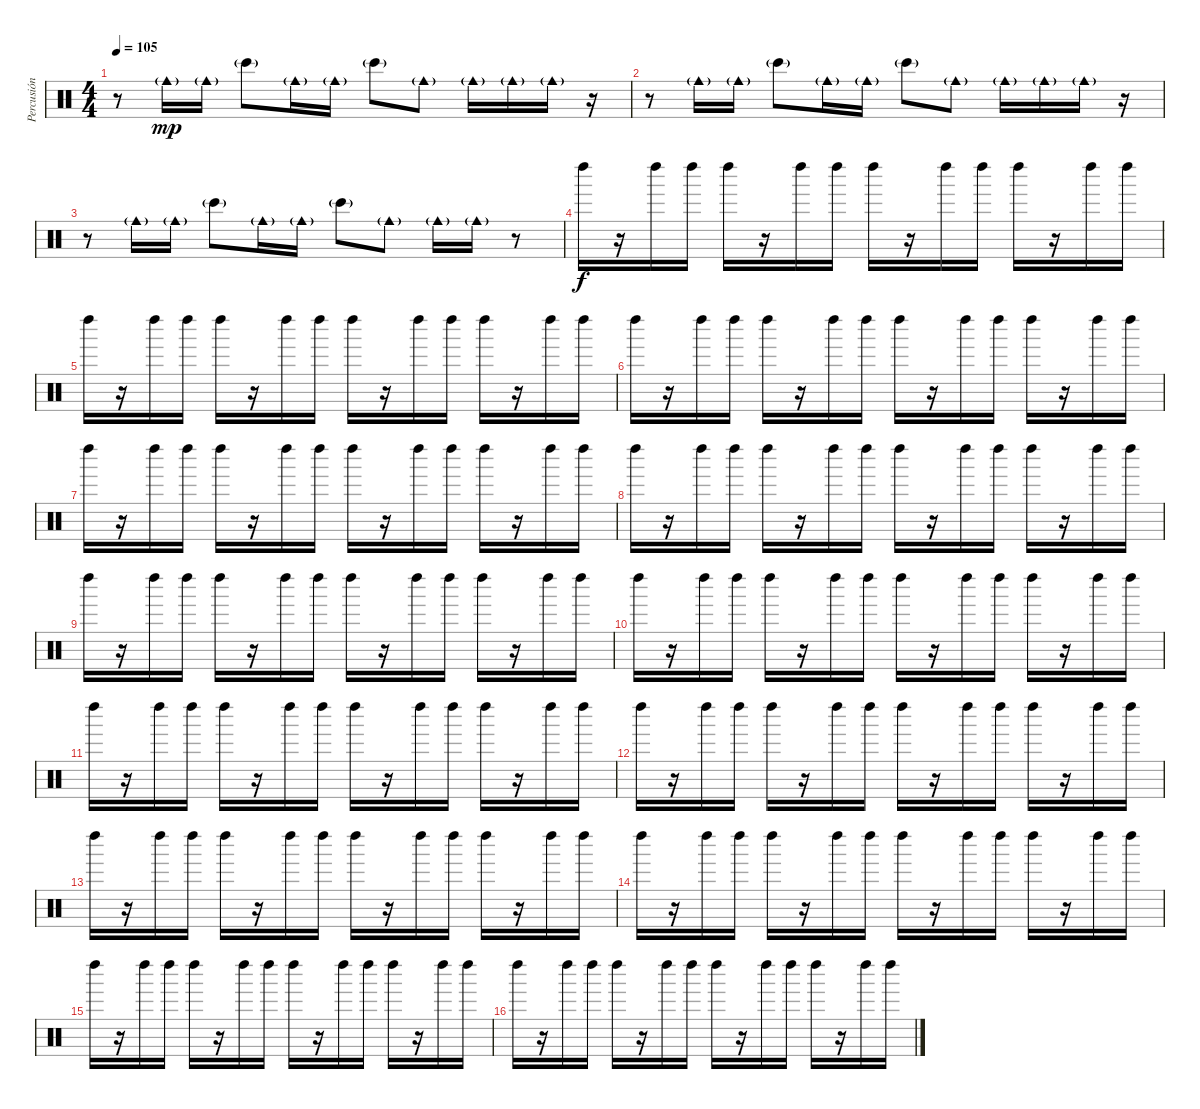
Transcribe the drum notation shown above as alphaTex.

\track ("Percusión" "Percusión") {instrument percussion}
\staff {score}
\articulation defaults
\ts (4 4)
\tempo 105
\clef neutral
\ks c
r.8{dy mp} "Cowbell medium (hit)"{g}.16 "Cowbell medium (hit)"{g}.16 "Bongo High (hit)"{g}.8 "Cowbell medium (hit)"{g}.16 "Cowbell medium (hit)"{g}.16 "Bongo High (hit)"{g}.8 "Cowbell medium (hit)"{g}.8 "Cowbell medium (hit)"{g}.16 "Cowbell medium (hit)"{g}.16 "Cowbell medium (hit)"{g}.16 r.16 |
r.8 "Cowbell medium (hit)"{g}.16 "Cowbell medium (hit)"{g}.16 "Bongo High (hit)"{g}.8 "Cowbell medium (hit)"{g}.16 "Cowbell medium (hit)"{g}.16 "Bongo High (hit)"{g}.8 "Cowbell medium (hit)"{g}.8 "Cowbell medium (hit)"{g}.16 "Cowbell medium (hit)"{g}.16 "Cowbell medium (hit)"{g}.16 r.16 |
r.8 "Cowbell medium (hit)"{g}.16 "Cowbell medium (hit)"{g}.16 "Bongo High (hit)"{g}.8 "Cowbell medium (hit)"{g}.16 "Cowbell medium (hit)"{g}.16 "Bongo High (hit)"{g}.8 "Cowbell medium (hit)"{g}.8 "Cowbell medium (hit)"{g}.16 "Cowbell medium (hit)"{g}.16 r.8 |
"Left Maraca (hit)".16{dy f} r.16 "Left Maraca (hit)".16 "Left Maraca (hit)".16 "Left Maraca (hit)".16 r.16 "Left Maraca (hit)".16 "Left Maraca (hit)".16 "Left Maraca (hit)".16 r.16 "Left Maraca (hit)".16 "Left Maraca (hit)".16 "Left Maraca (hit)".16 r.16 "Left Maraca (hit)".16 "Left Maraca (hit)".16 |
"Left Maraca (hit)".16 r.16 "Left Maraca (hit)".16 "Left Maraca (hit)".16 "Left Maraca (hit)".16 r.16 "Left Maraca (hit)".16 "Left Maraca (hit)".16 "Left Maraca (hit)".16 r.16 "Left Maraca (hit)".16 "Left Maraca (hit)".16 "Left Maraca (hit)".16 r.16 "Left Maraca (hit)".16 "Left Maraca (hit)".16 |
"Left Maraca (hit)".16 r.16 "Left Maraca (hit)".16 "Left Maraca (hit)".16 "Left Maraca (hit)".16 r.16 "Left Maraca (hit)".16 "Left Maraca (hit)".16 "Left Maraca (hit)".16 r.16 "Left Maraca (hit)".16 "Left Maraca (hit)".16 "Left Maraca (hit)".16 r.16 "Left Maraca (hit)".16 "Left Maraca (hit)".16 |
"Left Maraca (hit)".16 r.16 "Left Maraca (hit)".16 "Left Maraca (hit)".16 "Left Maraca (hit)".16 r.16 "Left Maraca (hit)".16 "Left Maraca (hit)".16 "Left Maraca (hit)".16 r.16 "Left Maraca (hit)".16 "Left Maraca (hit)".16 "Left Maraca (hit)".16 r.16 "Left Maraca (hit)".16 "Left Maraca (hit)".16 |
"Left Maraca (hit)".16 r.16 "Left Maraca (hit)".16 "Left Maraca (hit)".16 "Left Maraca (hit)".16 r.16 "Left Maraca (hit)".16 "Left Maraca (hit)".16 "Left Maraca (hit)".16 r.16 "Left Maraca (hit)".16 "Left Maraca (hit)".16 "Left Maraca (hit)".16 r.16 "Left Maraca (hit)".16 "Left Maraca (hit)".16 |
"Left Maraca (hit)".16 r.16 "Left Maraca (hit)".16 "Left Maraca (hit)".16 "Left Maraca (hit)".16 r.16 "Left Maraca (hit)".16 "Left Maraca (hit)".16 "Left Maraca (hit)".16 r.16 "Left Maraca (hit)".16 "Left Maraca (hit)".16 "Left Maraca (hit)".16 r.16 "Left Maraca (hit)".16 "Left Maraca (hit)".16 |
"Left Maraca (hit)".16 r.16 "Left Maraca (hit)".16 "Left Maraca (hit)".16 "Left Maraca (hit)".16 r.16 "Left Maraca (hit)".16 "Left Maraca (hit)".16 "Left Maraca (hit)".16 r.16 "Left Maraca (hit)".16 "Left Maraca (hit)".16 "Left Maraca (hit)".16 r.16 "Left Maraca (hit)".16 "Left Maraca (hit)".16 |
"Left Maraca (hit)".16 r.16 "Left Maraca (hit)".16 "Left Maraca (hit)".16 "Left Maraca (hit)".16 r.16 "Left Maraca (hit)".16 "Left Maraca (hit)".16 "Left Maraca (hit)".16 r.16 "Left Maraca (hit)".16 "Left Maraca (hit)".16 "Left Maraca (hit)".16 r.16 "Left Maraca (hit)".16 "Left Maraca (hit)".16 |
"Left Maraca (hit)".16 r.16 "Left Maraca (hit)".16 "Left Maraca (hit)".16 "Left Maraca (hit)".16 r.16 "Left Maraca (hit)".16 "Left Maraca (hit)".16 "Left Maraca (hit)".16 r.16 "Left Maraca (hit)".16 "Left Maraca (hit)".16 "Left Maraca (hit)".16 r.16 "Left Maraca (hit)".16 "Left Maraca (hit)".16 |
"Left Maraca (hit)".16 r.16 "Left Maraca (hit)".16 "Left Maraca (hit)".16 "Left Maraca (hit)".16 r.16 "Left Maraca (hit)".16 "Left Maraca (hit)".16 "Left Maraca (hit)".16 r.16 "Left Maraca (hit)".16 "Left Maraca (hit)".16 "Left Maraca (hit)".16 r.16 "Left Maraca (hit)".16 "Left Maraca (hit)".16 |
"Left Maraca (hit)".16 r.16 "Left Maraca (hit)".16 "Left Maraca (hit)".16 "Left Maraca (hit)".16 r.16 "Left Maraca (hit)".16 "Left Maraca (hit)".16 "Left Maraca (hit)".16 r.16 "Left Maraca (hit)".16 "Left Maraca (hit)".16 "Left Maraca (hit)".16 r.16 "Left Maraca (hit)".16 "Left Maraca (hit)".16 |
"Left Maraca (hit)".16 r.16 "Left Maraca (hit)".16 "Left Maraca (hit)".16 "Left Maraca (hit)".16 r.16 "Left Maraca (hit)".16 "Left Maraca (hit)".16 "Left Maraca (hit)".16 r.16 "Left Maraca (hit)".16 "Left Maraca (hit)".16 "Left Maraca (hit)".16 r.16 "Left Maraca (hit)".16 "Left Maraca (hit)".16 |
"Left Maraca (hit)".16 r.16 "Left Maraca (hit)".16 "Left Maraca (hit)".16 "Left Maraca (hit)".16 r.16 "Left Maraca (hit)".16 "Left Maraca (hit)".16 "Left Maraca (hit)".16 r.16 "Left Maraca (hit)".16 "Left Maraca (hit)".16 "Left Maraca (hit)".16 r.16 "Left Maraca (hit)".16 "Left Maraca (hit)".16
